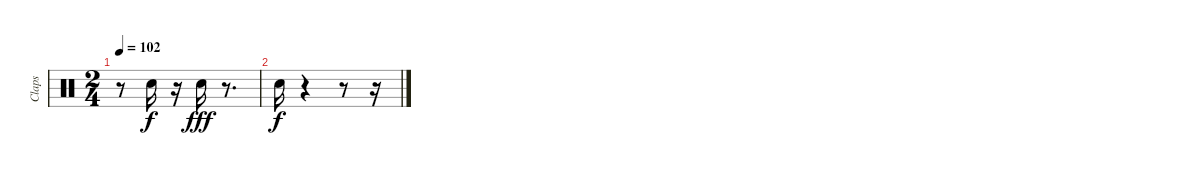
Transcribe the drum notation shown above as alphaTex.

\track ("Claps" "Claps") {instrument percussion}
\staff {score}
\articulation defaults
\ts (2 4)
\tempo 102
\clef neutral
\ks c
r.8{dy fff} "Hand Clap (hit)".16{dy f} r.16 "Hand Clap (hit)".16{dy fff} r.8{d} |
"Hand Clap (hit)".16{dy f} r.4 r.8 r.16
